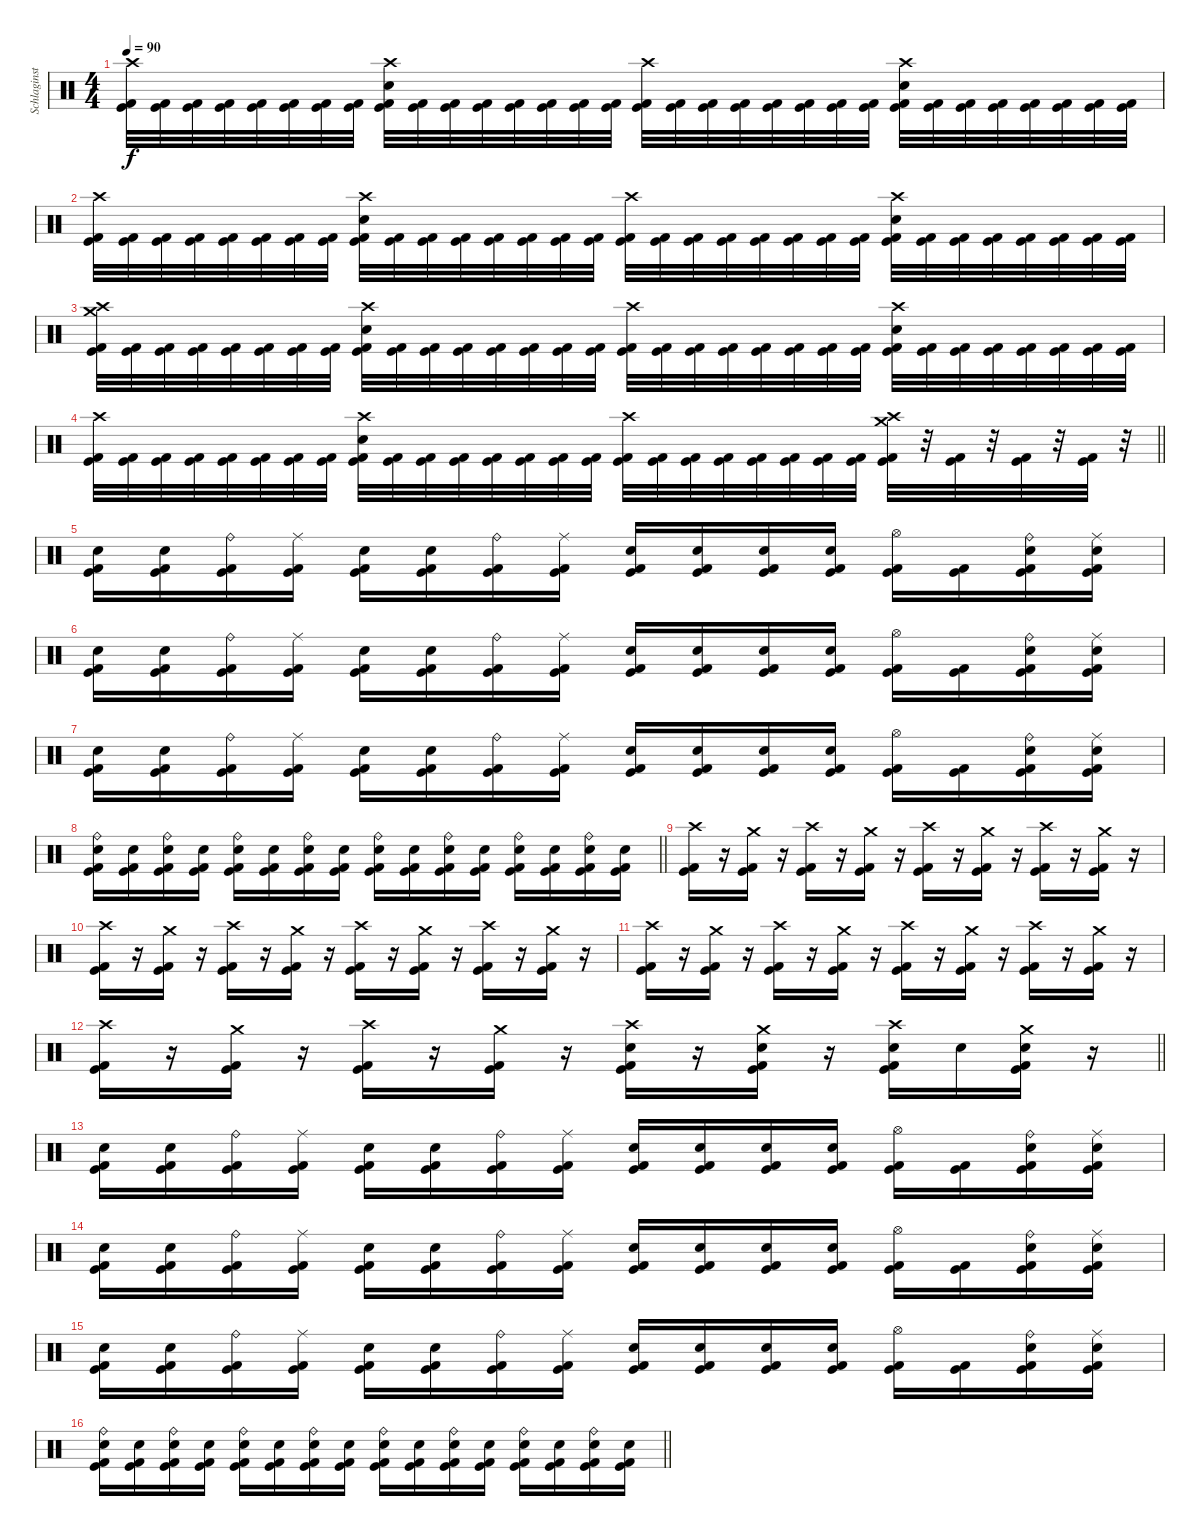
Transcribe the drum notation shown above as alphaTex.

\track ("Schlaginstrumente - Auswahl" "Schlaginst") {instrument percussion}
\staff {score}
\articulation defaults
\ts (4 4)
\tempo 90
\clef neutral
\ks c
("Crash high (hit)" "Kick (hit)" "Kick (hit) 2").32{dy f} ("Kick (hit)" "Kick (hit) 2").32 ("Kick (hit)" "Kick (hit) 2").32 ("Kick (hit)" "Kick (hit) 2").32 ("Kick (hit)" "Kick (hit) 2").32 ("Kick (hit)" "Kick (hit) 2").32 ("Kick (hit)" "Kick (hit) 2").32 ("Kick (hit)" "Kick (hit) 2").32 ("Crash high (hit)" "Electric Snare (hit)" "Kick (hit)" "Kick (hit) 2").32 ("Kick (hit)" "Kick (hit) 2").32 ("Kick (hit)" "Kick (hit) 2").32 ("Kick (hit)" "Kick (hit) 2").32 ("Kick (hit)" "Kick (hit) 2").32 ("Kick (hit)" "Kick (hit) 2").32 ("Kick (hit)" "Kick (hit) 2").32 ("Kick (hit)" "Kick (hit) 2").32 ("Crash high (hit)" "Kick (hit)" "Kick (hit) 2").32 ("Kick (hit)" "Kick (hit) 2").32 ("Kick (hit)" "Kick (hit) 2").32 ("Kick (hit)" "Kick (hit) 2").32 ("Kick (hit)" "Kick (hit) 2").32 ("Kick (hit)" "Kick (hit) 2").32 ("Kick (hit)" "Kick (hit) 2").32 ("Kick (hit)" "Kick (hit) 2").32 ("Crash high (hit)" "Electric Snare (hit)" "Kick (hit)" "Kick (hit) 2").32 ("Kick (hit)" "Kick (hit) 2").32 ("Kick (hit)" "Kick (hit) 2").32 ("Kick (hit)" "Kick (hit) 2").32 ("Kick (hit)" "Kick (hit) 2").32 ("Kick (hit)" "Kick (hit) 2").32 ("Kick (hit)" "Kick (hit) 2").32 ("Kick (hit)" "Kick (hit) 2").32 |
("Crash high (hit)" "Kick (hit)" "Kick (hit) 2").32 ("Kick (hit)" "Kick (hit) 2").32 ("Kick (hit)" "Kick (hit) 2").32 ("Kick (hit)" "Kick (hit) 2").32 ("Kick (hit)" "Kick (hit) 2").32 ("Kick (hit)" "Kick (hit) 2").32 ("Kick (hit)" "Kick (hit) 2").32 ("Kick (hit)" "Kick (hit) 2").32 ("Crash high (hit)" "Electric Snare (hit)" "Kick (hit)" "Kick (hit) 2").32 ("Kick (hit)" "Kick (hit) 2").32 ("Kick (hit)" "Kick (hit) 2").32 ("Kick (hit)" "Kick (hit) 2").32 ("Kick (hit)" "Kick (hit) 2").32 ("Kick (hit)" "Kick (hit) 2").32 ("Kick (hit)" "Kick (hit) 2").32 ("Kick (hit)" "Kick (hit) 2").32 ("Crash high (hit)" "Kick (hit)" "Kick (hit) 2").32 ("Kick (hit)" "Kick (hit) 2").32 ("Kick (hit)" "Kick (hit) 2").32 ("Kick (hit)" "Kick (hit) 2").32 ("Kick (hit)" "Kick (hit) 2").32 ("Kick (hit)" "Kick (hit) 2").32 ("Kick (hit)" "Kick (hit) 2").32 ("Kick (hit)" "Kick (hit) 2").32 ("Crash high (hit)" "Electric Snare (hit)" "Kick (hit)" "Kick (hit) 2").32 ("Kick (hit)" "Kick (hit) 2").32 ("Kick (hit)" "Kick (hit) 2").32 ("Kick (hit)" "Kick (hit) 2").32 ("Kick (hit)" "Kick (hit) 2").32 ("Kick (hit)" "Kick (hit) 2").32 ("Kick (hit)" "Kick (hit) 2").32 ("Kick (hit)" "Kick (hit) 2").32 |
("Crash high (hit)" "Crash medium (hit)" "Kick (hit)" "Kick (hit) 2").32 ("Kick (hit)" "Kick (hit) 2").32 ("Kick (hit)" "Kick (hit) 2").32 ("Kick (hit)" "Kick (hit) 2").32 ("Kick (hit)" "Kick (hit) 2").32 ("Kick (hit)" "Kick (hit) 2").32 ("Kick (hit)" "Kick (hit) 2").32 ("Kick (hit)" "Kick (hit) 2").32 ("Crash high (hit)" "Electric Snare (hit)" "Kick (hit)" "Kick (hit) 2").32 ("Kick (hit)" "Kick (hit) 2").32 ("Kick (hit)" "Kick (hit) 2").32 ("Kick (hit)" "Kick (hit) 2").32 ("Kick (hit)" "Kick (hit) 2").32 ("Kick (hit)" "Kick (hit) 2").32 ("Kick (hit)" "Kick (hit) 2").32 ("Kick (hit)" "Kick (hit) 2").32 ("Crash high (hit)" "Kick (hit)" "Kick (hit) 2").32 ("Kick (hit)" "Kick (hit) 2").32 ("Kick (hit)" "Kick (hit) 2").32 ("Kick (hit)" "Kick (hit) 2").32 ("Kick (hit)" "Kick (hit) 2").32 ("Kick (hit)" "Kick (hit) 2").32 ("Kick (hit)" "Kick (hit) 2").32 ("Kick (hit)" "Kick (hit) 2").32 ("Crash high (hit)" "Electric Snare (hit)" "Kick (hit)" "Kick (hit) 2").32 ("Kick (hit)" "Kick (hit) 2").32 ("Kick (hit)" "Kick (hit) 2").32 ("Kick (hit)" "Kick (hit) 2").32 ("Kick (hit)" "Kick (hit) 2").32 ("Kick (hit)" "Kick (hit) 2").32 ("Kick (hit)" "Kick (hit) 2").32 ("Kick (hit)" "Kick (hit) 2").32 |
\barLineRight lightlight
("Crash high (hit)" "Kick (hit)" "Kick (hit) 2").32 ("Kick (hit)" "Kick (hit) 2").32 ("Kick (hit)" "Kick (hit) 2").32 ("Kick (hit)" "Kick (hit) 2").32 ("Kick (hit)" "Kick (hit) 2").32 ("Kick (hit)" "Kick (hit) 2").32 ("Kick (hit)" "Kick (hit) 2").32 ("Kick (hit)" "Kick (hit) 2").32 ("Crash high (hit)" "Electric Snare (hit)" "Kick (hit)" "Kick (hit) 2").32 ("Kick (hit)" "Kick (hit) 2").32 ("Kick (hit)" "Kick (hit) 2").32 ("Kick (hit)" "Kick (hit) 2").32 ("Kick (hit)" "Kick (hit) 2").32 ("Kick (hit)" "Kick (hit) 2").32 ("Kick (hit)" "Kick (hit) 2").32 ("Kick (hit)" "Kick (hit) 2").32 ("Crash high (hit)" "Kick (hit)" "Kick (hit) 2").32 ("Kick (hit)" "Kick (hit) 2").32 ("Kick (hit)" "Kick (hit) 2").32 ("Kick (hit)" "Kick (hit) 2").32 ("Kick (hit)" "Kick (hit) 2").32 ("Kick (hit)" "Kick (hit) 2").32 ("Kick (hit)" "Kick (hit) 2").32 ("Kick (hit)" "Kick (hit) 2").32 ("Crash high (hit)" "Crash medium (hit)" "Kick (hit)" "Kick (hit) 2").32 r.32 ("Kick (hit)" "Kick (hit) 2").32 r.32 ("Kick (hit)" "Kick (hit) 2").32 r.32 ("Kick (hit)" "Kick (hit) 2").32 r.32 |
("Electric Snare (hit)" "Kick (hit)" "Kick (hit) 2").16 ("Electric Snare (hit)" "Kick (hit)" "Kick (hit) 2").16 ("Ride (bell)" "Kick (hit)" "Kick (hit) 2").16 ("Ride (middle)" "Kick (hit)" "Kick (hit) 2").16 ("Electric Snare (hit)" "Kick (hit)" "Kick (hit) 2").16 ("Electric Snare (hit)" "Kick (hit)" "Kick (hit) 2").16 ("Ride (bell)" "Kick (hit)" "Kick (hit) 2").16 ("Ride (middle)" "Kick (hit)" "Kick (hit) 2").16 ("Electric Snare (hit)" "Kick (hit)" "Kick (hit) 2").16 ("Electric Snare (hit)" "Kick (hit)" "Kick (hit) 2").16 ("Electric Snare (hit)" "Kick (hit)" "Kick (hit) 2").16 ("Electric Snare (hit)" "Kick (hit)" "Kick (hit) 2").16 ("Hi-Hat (open)" "Kick (hit)" "Kick (hit) 2").16 ("Kick (hit)" "Kick (hit) 2").16 ("Ride (bell)" "Electric Snare (hit)" "Kick (hit)" "Kick (hit) 2").16 ("Ride (middle)" "Electric Snare (hit)" "Kick (hit)" "Kick (hit) 2").16 |
("Electric Snare (hit)" "Kick (hit)" "Kick (hit) 2").16 ("Electric Snare (hit)" "Kick (hit)" "Kick (hit) 2").16 ("Ride (bell)" "Kick (hit)" "Kick (hit) 2").16 ("Ride (middle)" "Kick (hit)" "Kick (hit) 2").16 ("Electric Snare (hit)" "Kick (hit)" "Kick (hit) 2").16 ("Electric Snare (hit)" "Kick (hit)" "Kick (hit) 2").16 ("Ride (bell)" "Kick (hit)" "Kick (hit) 2").16 ("Ride (middle)" "Kick (hit)" "Kick (hit) 2").16 ("Electric Snare (hit)" "Kick (hit)" "Kick (hit) 2").16 ("Electric Snare (hit)" "Kick (hit)" "Kick (hit) 2").16 ("Electric Snare (hit)" "Kick (hit)" "Kick (hit) 2").16 ("Electric Snare (hit)" "Kick (hit)" "Kick (hit) 2").16 ("Hi-Hat (open)" "Kick (hit)" "Kick (hit) 2").16 ("Kick (hit)" "Kick (hit) 2").16 ("Ride (bell)" "Electric Snare (hit)" "Kick (hit)" "Kick (hit) 2").16 ("Ride (middle)" "Electric Snare (hit)" "Kick (hit)" "Kick (hit) 2").16 |
("Electric Snare (hit)" "Kick (hit)" "Kick (hit) 2").16 ("Electric Snare (hit)" "Kick (hit)" "Kick (hit) 2").16 ("Ride (bell)" "Kick (hit)" "Kick (hit) 2").16 ("Ride (middle)" "Kick (hit)" "Kick (hit) 2").16 ("Electric Snare (hit)" "Kick (hit)" "Kick (hit) 2").16 ("Electric Snare (hit)" "Kick (hit)" "Kick (hit) 2").16 ("Ride (bell)" "Kick (hit)" "Kick (hit) 2").16 ("Ride (middle)" "Kick (hit)" "Kick (hit) 2").16 ("Electric Snare (hit)" "Kick (hit)" "Kick (hit) 2").16 ("Electric Snare (hit)" "Kick (hit)" "Kick (hit) 2").16 ("Electric Snare (hit)" "Kick (hit)" "Kick (hit) 2").16 ("Electric Snare (hit)" "Kick (hit)" "Kick (hit) 2").16 ("Hi-Hat (open)" "Kick (hit)" "Kick (hit) 2").16 ("Kick (hit)" "Kick (hit) 2").16 ("Ride (bell)" "Electric Snare (hit)" "Kick (hit)" "Kick (hit) 2").16 ("Ride (middle)" "Electric Snare (hit)" "Kick (hit)" "Kick (hit) 2").16 |
\barLineRight lightlight
("Ride (bell)" "Electric Snare (hit)" "Kick (hit)" "Kick (hit) 2").16 ("Electric Snare (hit)" "Kick (hit)" "Kick (hit) 2").16 ("Ride (bell)" "Electric Snare (hit)" "Kick (hit)" "Kick (hit) 2").16 ("Electric Snare (hit)" "Kick (hit)" "Kick (hit) 2").16 ("Ride (bell)" "Electric Snare (hit)" "Kick (hit)" "Kick (hit) 2").16 ("Electric Snare (hit)" "Kick (hit)" "Kick (hit) 2").16 ("Ride (bell)" "Electric Snare (hit)" "Kick (hit)" "Kick (hit) 2").16 ("Electric Snare (hit)" "Kick (hit)" "Kick (hit) 2").16 ("Ride (bell)" "Electric Snare (hit)" "Kick (hit)" "Kick (hit) 2").16 ("Electric Snare (hit)" "Kick (hit)" "Kick (hit) 2").16 ("Ride (bell)" "Electric Snare (hit)" "Kick (hit)" "Kick (hit) 2").16 ("Electric Snare (hit)" "Kick (hit)" "Kick (hit) 2").16 ("Ride (bell)" "Electric Snare (hit)" "Kick (hit)" "Kick (hit) 2").16 ("Electric Snare (hit)" "Kick (hit)" "Kick (hit) 2").16 ("Ride (bell)" "Electric Snare (hit)" "Kick (hit)" "Kick (hit) 2").16 ("Electric Snare (hit)" "Kick (hit)" "Kick (hit) 2").16 |
("Crash high (hit)" "Kick (hit)" "Kick (hit) 2").16 r.16 ("Crash medium (hit)" "Kick (hit)" "Kick (hit) 2").16 r.16 ("Crash high (hit)" "Kick (hit)" "Kick (hit) 2").16 r.16 ("Crash medium (hit)" "Kick (hit)" "Kick (hit) 2").16 r.16 ("Crash high (hit)" "Kick (hit)" "Kick (hit) 2").16 r.16 ("Crash medium (hit)" "Kick (hit)" "Kick (hit) 2").16 r.16 ("Crash high (hit)" "Kick (hit)" "Kick (hit) 2").16 r.16 ("Crash medium (hit)" "Kick (hit)" "Kick (hit) 2").16 r.16 |
("Crash high (hit)" "Kick (hit)" "Kick (hit) 2").16 r.16 ("Crash medium (hit)" "Kick (hit)" "Kick (hit) 2").16 r.16 ("Crash high (hit)" "Kick (hit)" "Kick (hit) 2").16 r.16 ("Crash medium (hit)" "Kick (hit)" "Kick (hit) 2").16 r.16 ("Crash high (hit)" "Kick (hit)" "Kick (hit) 2").16 r.16 ("Crash medium (hit)" "Kick (hit)" "Kick (hit) 2").16 r.16 ("Crash high (hit)" "Kick (hit)" "Kick (hit) 2").16 r.16 ("Crash medium (hit)" "Kick (hit)" "Kick (hit) 2").16 r.16 |
("Crash high (hit)" "Kick (hit)" "Kick (hit) 2").16 r.16 ("Crash medium (hit)" "Kick (hit)" "Kick (hit) 2").16 r.16 ("Crash high (hit)" "Kick (hit)" "Kick (hit) 2").16 r.16 ("Crash medium (hit)" "Kick (hit)" "Kick (hit) 2").16 r.16 ("Crash high (hit)" "Kick (hit)" "Kick (hit) 2").16 r.16 ("Crash medium (hit)" "Kick (hit)" "Kick (hit) 2").16 r.16 ("Crash high (hit)" "Kick (hit)" "Kick (hit) 2").16 r.16 ("Crash medium (hit)" "Kick (hit)" "Kick (hit) 2").16 r.16 |
\barLineRight lightlight
("Crash high (hit)" "Kick (hit)" "Kick (hit) 2").16 r.16 ("Crash medium (hit)" "Kick (hit)" "Kick (hit) 2").16 r.16 ("Crash high (hit)" "Kick (hit)" "Kick (hit) 2").16 r.16 ("Crash medium (hit)" "Kick (hit)" "Kick (hit) 2").16 r.16 ("Crash high (hit)" "Electric Snare (hit)" "Kick (hit)" "Kick (hit) 2").16 r.16 ("Crash medium (hit)" "Electric Snare (hit)" "Kick (hit)" "Kick (hit) 2").16 r.16 ("Crash high (hit)" "Electric Snare (hit)" "Kick (hit)" "Kick (hit) 2").16 "Electric Snare (hit)".16 ("Crash medium (hit)" "Electric Snare (hit)" "Kick (hit)" "Kick (hit) 2").16 r.16 |
("Electric Snare (hit)" "Kick (hit)" "Kick (hit) 2").16 ("Electric Snare (hit)" "Kick (hit)" "Kick (hit) 2").16 ("Ride (bell)" "Kick (hit)" "Kick (hit) 2").16 ("Ride (middle)" "Kick (hit)" "Kick (hit) 2").16 ("Electric Snare (hit)" "Kick (hit)" "Kick (hit) 2").16 ("Electric Snare (hit)" "Kick (hit)" "Kick (hit) 2").16 ("Ride (bell)" "Kick (hit)" "Kick (hit) 2").16 ("Ride (middle)" "Kick (hit)" "Kick (hit) 2").16 ("Electric Snare (hit)" "Kick (hit)" "Kick (hit) 2").16 ("Electric Snare (hit)" "Kick (hit)" "Kick (hit) 2").16 ("Electric Snare (hit)" "Kick (hit)" "Kick (hit) 2").16 ("Electric Snare (hit)" "Kick (hit)" "Kick (hit) 2").16 ("Hi-Hat (open)" "Kick (hit)" "Kick (hit) 2").16 ("Kick (hit)" "Kick (hit) 2").16 ("Ride (bell)" "Electric Snare (hit)" "Kick (hit)" "Kick (hit) 2").16 ("Ride (middle)" "Electric Snare (hit)" "Kick (hit)" "Kick (hit) 2").16 |
("Electric Snare (hit)" "Kick (hit)" "Kick (hit) 2").16 ("Electric Snare (hit)" "Kick (hit)" "Kick (hit) 2").16 ("Ride (bell)" "Kick (hit)" "Kick (hit) 2").16 ("Ride (middle)" "Kick (hit)" "Kick (hit) 2").16 ("Electric Snare (hit)" "Kick (hit)" "Kick (hit) 2").16 ("Electric Snare (hit)" "Kick (hit)" "Kick (hit) 2").16 ("Ride (bell)" "Kick (hit)" "Kick (hit) 2").16 ("Ride (middle)" "Kick (hit)" "Kick (hit) 2").16 ("Electric Snare (hit)" "Kick (hit)" "Kick (hit) 2").16 ("Electric Snare (hit)" "Kick (hit)" "Kick (hit) 2").16 ("Electric Snare (hit)" "Kick (hit)" "Kick (hit) 2").16 ("Electric Snare (hit)" "Kick (hit)" "Kick (hit) 2").16 ("Hi-Hat (open)" "Kick (hit)" "Kick (hit) 2").16 ("Kick (hit)" "Kick (hit) 2").16 ("Ride (bell)" "Electric Snare (hit)" "Kick (hit)" "Kick (hit) 2").16 ("Ride (middle)" "Electric Snare (hit)" "Kick (hit)" "Kick (hit) 2").16 |
("Electric Snare (hit)" "Kick (hit)" "Kick (hit) 2").16 ("Electric Snare (hit)" "Kick (hit)" "Kick (hit) 2").16 ("Ride (bell)" "Kick (hit)" "Kick (hit) 2").16 ("Ride (middle)" "Kick (hit)" "Kick (hit) 2").16 ("Electric Snare (hit)" "Kick (hit)" "Kick (hit) 2").16 ("Electric Snare (hit)" "Kick (hit)" "Kick (hit) 2").16 ("Ride (bell)" "Kick (hit)" "Kick (hit) 2").16 ("Ride (middle)" "Kick (hit)" "Kick (hit) 2").16 ("Electric Snare (hit)" "Kick (hit)" "Kick (hit) 2").16 ("Electric Snare (hit)" "Kick (hit)" "Kick (hit) 2").16 ("Electric Snare (hit)" "Kick (hit)" "Kick (hit) 2").16 ("Electric Snare (hit)" "Kick (hit)" "Kick (hit) 2").16 ("Hi-Hat (open)" "Kick (hit)" "Kick (hit) 2").16 ("Kick (hit)" "Kick (hit) 2").16 ("Ride (bell)" "Electric Snare (hit)" "Kick (hit)" "Kick (hit) 2").16 ("Ride (middle)" "Electric Snare (hit)" "Kick (hit)" "Kick (hit) 2").16 |
\barLineRight lightlight
("Ride (bell)" "Electric Snare (hit)" "Kick (hit)" "Kick (hit) 2").16 ("Electric Snare (hit)" "Kick (hit)" "Kick (hit) 2").16 ("Ride (bell)" "Electric Snare (hit)" "Kick (hit)" "Kick (hit) 2").16 ("Electric Snare (hit)" "Kick (hit)" "Kick (hit) 2").16 ("Ride (bell)" "Electric Snare (hit)" "Kick (hit)" "Kick (hit) 2").16 ("Electric Snare (hit)" "Kick (hit)" "Kick (hit) 2").16 ("Ride (bell)" "Electric Snare (hit)" "Kick (hit)" "Kick (hit) 2").16 ("Electric Snare (hit)" "Kick (hit)" "Kick (hit) 2").16 ("Ride (bell)" "Electric Snare (hit)" "Kick (hit)" "Kick (hit) 2").16 ("Electric Snare (hit)" "Kick (hit)" "Kick (hit) 2").16 ("Ride (bell)" "Electric Snare (hit)" "Kick (hit)" "Kick (hit) 2").16 ("Electric Snare (hit)" "Kick (hit)" "Kick (hit) 2").16 ("Ride (bell)" "Electric Snare (hit)" "Kick (hit)" "Kick (hit) 2").16 ("Electric Snare (hit)" "Kick (hit)" "Kick (hit) 2").16 ("Ride (bell)" "Electric Snare (hit)" "Kick (hit)" "Kick (hit) 2").16 ("Electric Snare (hit)" "Kick (hit)" "Kick (hit) 2").16
